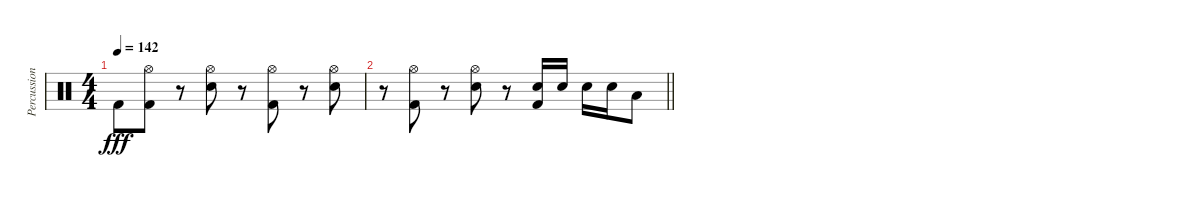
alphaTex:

\track ("Percussion" "Percussion") {instrument percussion}
\staff {score}
\articulation defaults
\ts (4 4)
\tempo 142
\clef neutral
\ks c "Kick (hit) 2".8{dy fff}
("Hi-Hat (open)" "Kick (hit) 2").8 r.8 ("Hi-Hat (open)" "Electric Snare (hit)").8 r.8 ("Hi-Hat (open)" "Kick (hit) 2").8 r.8 ("Hi-Hat (open)" "Electric Snare (hit)").8 |
\barLineRight lightlight
r.8 ("Hi-Hat (open)" "Kick (hit) 2").8 r.8 ("Hi-Hat (open)" "Electric Snare (hit)").8 r.8 ("Electric Snare (hit)" "Kick (hit) 2").16 "Electric Snare (hit)".16 "Electric Snare (hit)".16 "Electric Snare (hit)".16 "Low Tom (hit)".8
